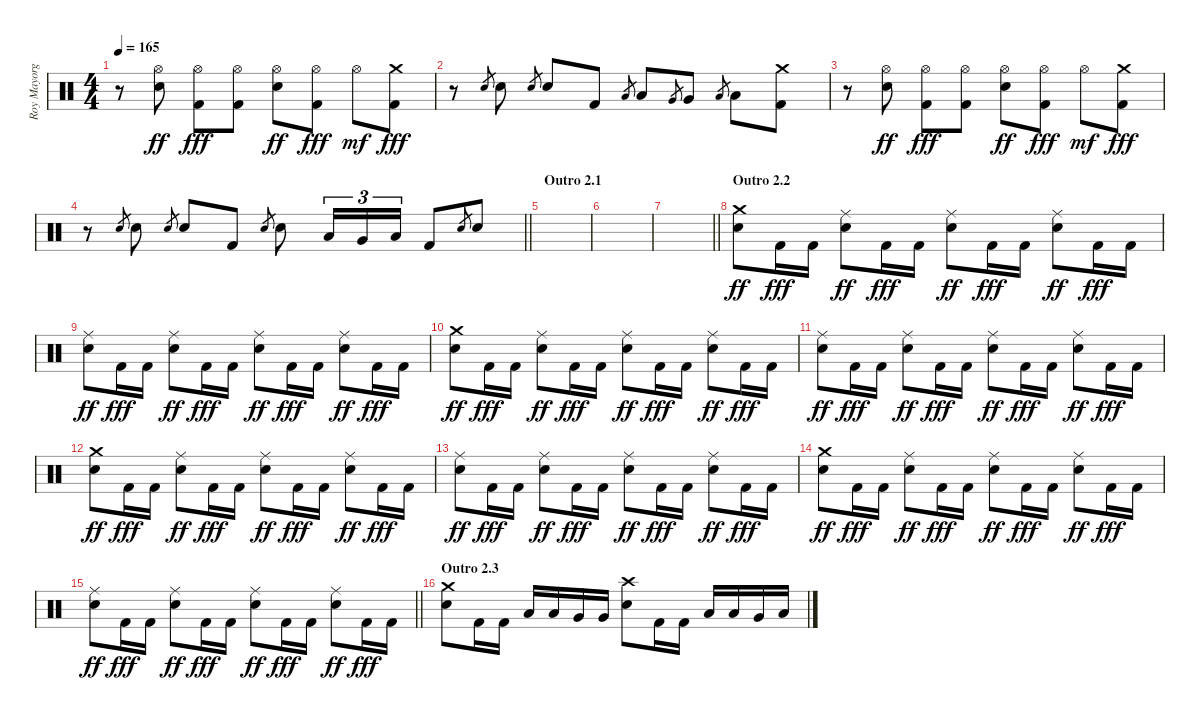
\track ("Roy Mayorga" "Roy Mayorg") {instrument percussion}
\staff {score}
\articulation defaults
\ts (4 4)
\tempo 165
\clef neutral
\ks c
r.8{dy fff} ("Hi-Hat (open)" "Electric Snare (hit)").8{dy ff} ("Hi-Hat (open)" "Kick (hit) 2").8{dy fff} ("Hi-Hat (open)" "Kick (hit) 2").8 ("Hi-Hat (open)" "Electric Snare (hit)").8{dy ff} ("Hi-Hat (open)" "Kick (hit) 2").8{dy fff} "Hi-Hat (open)".8{dy mf} ("Crash medium (hit)" "Kick (hit) 2").8{dy fff} |
r.8 "Electric Snare (hit)".8{gr} "Electric Snare (hit)".8 "Electric Snare (hit)".8{gr} "Electric Snare (hit)".8 "Kick (hit) 2".8 "Low Tom (hit)".8{gr} "Low Tom (hit)".8 "Very Low Tom (hit)".8{gr} "Very Low Tom (hit)".8 "Low Floor Tom (hit)".8{gr} "Low Floor Tom (hit)".8 ("Crash medium (hit)" "Kick (hit) 2").8 |
r.8 ("Hi-Hat (open)" "Electric Snare (hit)").8{dy ff} ("Hi-Hat (open)" "Kick (hit) 2").8{dy fff} ("Hi-Hat (open)" "Kick (hit) 2").8 ("Hi-Hat (open)" "Electric Snare (hit)").8{dy ff} ("Hi-Hat (open)" "Kick (hit) 2").8{dy fff} "Hi-Hat (open)".8{dy mf} ("Crash medium (hit)" "Kick (hit) 2").8{dy fff} |
\barLineRight lightlight
r.8 "Electric Snare (hit)".8{gr} "Electric Snare (hit)".8 "Electric Snare (hit)".8{gr} "Electric Snare (hit)".8 "Kick (hit) 2".8 "Electric Snare (hit)".8{gr} "Electric Snare (hit)".8 "Low Tom (hit)".16{tu (3 2)} "Very Low Tom (hit)".16{tu (3 2)} "Low Floor Tom (hit)".16{tu (3 2)} "Kick (hit) 2".8 "Electric Snare (hit)".8{gr} "Electric Snare (hit)".8 |
\section ("" "Outro 2.1")
|
|
\barLineRight lightlight
|
\section ("" "Outro 2.2")
("Crash medium (hit)" "Electric Snare (hit)").8{dy ff} "Kick (hit) 2".16{dy fff} "Kick (hit) 2".16 ("Ride (middle)" "Electric Snare (hit)").8{dy ff} "Kick (hit) 2".16{dy fff} "Kick (hit) 2".16 ("Ride (middle)" "Electric Snare (hit)").8{dy ff} "Kick (hit) 2".16{dy fff} "Kick (hit) 2".16 ("Ride (middle)" "Electric Snare (hit)").8{dy ff} "Kick (hit) 2".16{dy fff} "Kick (hit) 2".16 |
("Ride (middle)" "Electric Snare (hit)").8{dy ff} "Kick (hit) 2".16{dy fff} "Kick (hit) 2".16 ("Ride (middle)" "Electric Snare (hit)").8{dy ff} "Kick (hit) 2".16{dy fff} "Kick (hit) 2".16 ("Ride (middle)" "Electric Snare (hit)").8{dy ff} "Kick (hit) 2".16{dy fff} "Kick (hit) 2".16 ("Ride (middle)" "Electric Snare (hit)").8{dy ff} "Kick (hit) 2".16{dy fff} "Kick (hit) 2".16 |
("Crash medium (hit)" "Electric Snare (hit)").8{dy ff} "Kick (hit) 2".16{dy fff} "Kick (hit) 2".16 ("Ride (middle)" "Electric Snare (hit)").8{dy ff} "Kick (hit) 2".16{dy fff} "Kick (hit) 2".16 ("Ride (middle)" "Electric Snare (hit)").8{dy ff} "Kick (hit) 2".16{dy fff} "Kick (hit) 2".16 ("Ride (middle)" "Electric Snare (hit)").8{dy ff} "Kick (hit) 2".16{dy fff} "Kick (hit) 2".16 |
("Ride (middle)" "Electric Snare (hit)").8{dy ff} "Kick (hit) 2".16{dy fff} "Kick (hit) 2".16 ("Ride (middle)" "Electric Snare (hit)").8{dy ff} "Kick (hit) 2".16{dy fff} "Kick (hit) 2".16 ("Ride (middle)" "Electric Snare (hit)").8{dy ff} "Kick (hit) 2".16{dy fff} "Kick (hit) 2".16 ("Ride (middle)" "Electric Snare (hit)").8{dy ff} "Kick (hit) 2".16{dy fff} "Kick (hit) 2".16 |
("Crash medium (hit)" "Electric Snare (hit)").8{dy ff} "Kick (hit) 2".16{dy fff} "Kick (hit) 2".16 ("Ride (middle)" "Electric Snare (hit)").8{dy ff} "Kick (hit) 2".16{dy fff} "Kick (hit) 2".16 ("Ride (middle)" "Electric Snare (hit)").8{dy ff} "Kick (hit) 2".16{dy fff} "Kick (hit) 2".16 ("Ride (middle)" "Electric Snare (hit)").8{dy ff} "Kick (hit) 2".16{dy fff} "Kick (hit) 2".16 |
("Ride (middle)" "Electric Snare (hit)").8{dy ff} "Kick (hit) 2".16{dy fff} "Kick (hit) 2".16 ("Ride (middle)" "Electric Snare (hit)").8{dy ff} "Kick (hit) 2".16{dy fff} "Kick (hit) 2".16 ("Ride (middle)" "Electric Snare (hit)").8{dy ff} "Kick (hit) 2".16{dy fff} "Kick (hit) 2".16 ("Ride (middle)" "Electric Snare (hit)").8{dy ff} "Kick (hit) 2".16{dy fff} "Kick (hit) 2".16 |
("Crash medium (hit)" "Electric Snare (hit)").8{dy ff} "Kick (hit) 2".16{dy fff} "Kick (hit) 2".16 ("Ride (middle)" "Electric Snare (hit)").8{dy ff} "Kick (hit) 2".16{dy fff} "Kick (hit) 2".16 ("Ride (middle)" "Electric Snare (hit)").8{dy ff} "Kick (hit) 2".16{dy fff} "Kick (hit) 2".16 ("Ride (middle)" "Electric Snare (hit)").8{dy ff} "Kick (hit) 2".16{dy fff} "Kick (hit) 2".16 |
\barLineRight lightlight
("Ride (middle)" "Electric Snare (hit)").8{dy ff} "Kick (hit) 2".16{dy fff} "Kick (hit) 2".16 ("Ride (middle)" "Electric Snare (hit)").8{dy ff} "Kick (hit) 2".16{dy fff} "Kick (hit) 2".16 ("Ride (middle)" "Electric Snare (hit)").8{dy ff} "Kick (hit) 2".16{dy fff} "Kick (hit) 2".16 ("Ride (middle)" "Electric Snare (hit)").8{dy ff} "Kick (hit) 2".16{dy fff} "Kick (hit) 2".16 |
\section ("" "Outro 2.3")
("Crash medium (hit)" "Electric Snare (hit)").8 "Kick (hit) 2".16 "Kick (hit) 2".16 "Low Tom (hit)".16 "Low Tom (hit)".16 "Very Low Tom (hit)".16 "Very Low Tom (hit)".16 ("Crash high (hit)" "Electric Snare (hit)").8 "Kick (hit) 2".16 "Kick (hit) 2".16 "Low Tom (hit)".16 "Low Tom (hit)".16 "Very Low Tom (hit)".16 "Low Floor Tom (hit)".16
